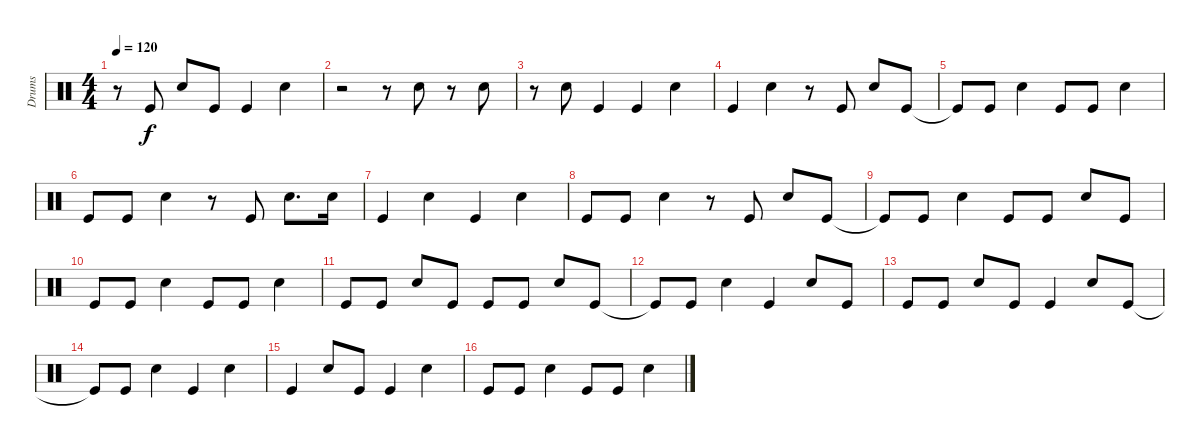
\track ("Drums" "Drums") {instrument percussion}
\staff {score}
\articulation defaults
\ts (4 4)
\tempo 120
\clef neutral
\ks c
r.8{dy f} "Kick (hit)".8 "Snare (hit) 2".8 "Kick (hit)".8 "Kick (hit)".4 "Snare (hit) 2".4 |
r.2 r.8 "Snare (hit) 2".8 r.8 "Snare (hit) 2".8 |
r.8 "Snare (hit) 2".8 "Kick (hit)".4 "Kick (hit)".4 "Snare (hit) 2".4 |
"Kick (hit)".4 "Snare (hit) 2".4 r.8 "Kick (hit)".8 "Snare (hit) 2".8 "Kick (hit)".8 |
"Kick (hit)"{t}.8 "Kick (hit)".8 "Snare (hit) 2".4 "Kick (hit)".8 "Kick (hit)".8 "Snare (hit) 2".4 |
"Kick (hit)".8 "Kick (hit)".8 "Snare (hit) 2".4 r.8 "Kick (hit)".8 "Snare (hit) 2".8{d} "Snare (hit) 2".16 |
"Kick (hit)".4 "Snare (hit) 2".4 "Kick (hit)".4 "Snare (hit) 2".4 |
"Kick (hit)".8 "Kick (hit)".8 "Snare (hit) 2".4 r.8 "Kick (hit)".8 "Snare (hit) 2".8 "Kick (hit)".8 |
"Kick (hit)"{t}.8 "Kick (hit)".8 "Snare (hit) 2".4 "Kick (hit)".8 "Kick (hit)".8 "Snare (hit) 2".8 "Kick (hit)".8 |
"Kick (hit)".8 "Kick (hit)".8 "Snare (hit) 2".4 "Kick (hit)".8 "Kick (hit)".8 "Snare (hit) 2".4 |
"Kick (hit)".8 "Kick (hit)".8 "Snare (hit) 2".8 "Kick (hit)".8 "Kick (hit)".8 "Kick (hit)".8 "Snare (hit) 2".8 "Kick (hit)".8 |
"Kick (hit)"{t}.8 "Kick (hit)".8 "Snare (hit) 2".4 "Kick (hit)".4 "Snare (hit) 2".8 "Kick (hit)".8 |
"Kick (hit)".8 "Kick (hit)".8 "Snare (hit) 2".8 "Kick (hit)".8 "Kick (hit)".4 "Snare (hit) 2".8 "Kick (hit)".8 |
"Kick (hit)"{t}.8 "Kick (hit)".8 "Snare (hit) 2".4 "Kick (hit)".4 "Snare (hit) 2".4 |
"Kick (hit)".4 "Snare (hit) 2".8 "Kick (hit)".8 "Kick (hit)".4 "Snare (hit) 2".4 |
"Kick (hit)".8 "Kick (hit)".8 "Snare (hit) 2".4 "Kick (hit)".8 "Kick (hit)".8 "Snare (hit) 2".4
